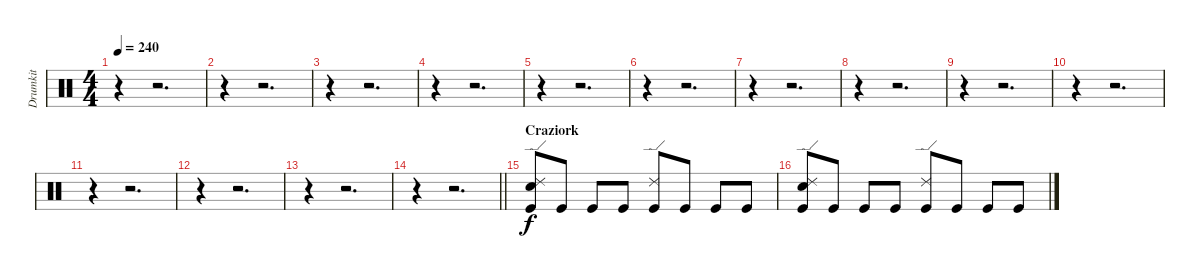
\track ("Drumkit" "Drumkit") {instrument percussion}
\staff {score}
\articulation defaults
\ts (4 4)
\tempo 240
\clef neutral
\ks c
r.4{dy f} r.2{d} |
r.4 r.2{d} |
r.4 r.2{d} |
r.4 r.2{d} |
r.4 r.2{d} |
r.4 r.2{d} |
r.4 r.2{d} |
r.4 r.2{d} |
r.4 r.2{d} |
r.4 r.2{d} |
r.4 r.2{d} |
r.4 r.2{d} |
r.4 r.2{d} |
\barLineRight lightlight
r.4 r.2{d} |
\section ("" "Craziork")
("Ride (edge) 2" "Snare (hit) 2" "Kick (hit)").8 "Kick (hit)".8 "Kick (hit)".8 "Kick (hit)".8 ("Ride (edge) 2" "Kick (hit)").8 "Kick (hit)".8 "Kick (hit)".8 "Kick (hit)".8 |
("Ride (edge) 2" "Snare (hit) 2" "Kick (hit)").8 "Kick (hit)".8 "Kick (hit)".8 "Kick (hit)".8 ("Ride (edge) 2" "Kick (hit)").8 "Kick (hit)".8 "Kick (hit)".8 "Kick (hit)".8
